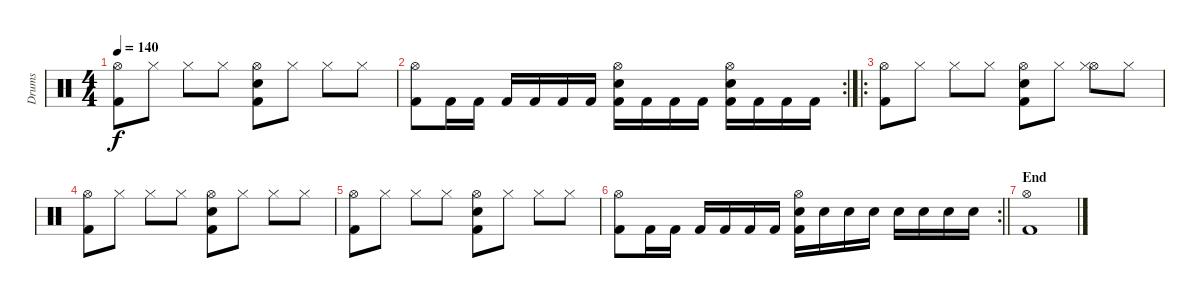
\track ("Drums" "Drums") {instrument percussion}
\staff {score}
\articulation defaults
\ts (4 4)
\tempo 140
\clef neutral
\ks c
("Hi-Hat (open)" "Kick (hit) 2").8{dy f} "Hi-Hat (closed)".8 "Hi-Hat (closed)".8 "Hi-Hat (closed)".8 ("Hi-Hat (open)" "Snare (hit) 2" "Kick (hit) 2").8 "Hi-Hat (closed)".8 "Hi-Hat (closed)".8 "Hi-Hat (closed)".8 |
\rc 2
("Hi-Hat (open)" "Kick (hit) 2").8 "Kick (hit) 2".16 "Kick (hit) 2".16 "Kick (hit) 2".16 "Kick (hit) 2".16 "Kick (hit) 2".16 "Kick (hit) 2".16 ("Hi-Hat (open)" "Snare (hit) 2" "Kick (hit) 2").16 "Kick (hit) 2".16 "Kick (hit) 2".16 "Kick (hit) 2".16 ("Hi-Hat (open)" "Snare (hit) 2" "Kick (hit) 2").16 "Kick (hit) 2".16 "Kick (hit) 2".16 "Kick (hit) 2".16 |
\ro
("Hi-Hat (open)" "Kick (hit) 2").8 "Hi-Hat (closed)".8 "Hi-Hat (closed)".8 "Hi-Hat (closed)".8 ("Hi-Hat (open)" "Snare (hit) 2" "Kick (hit) 2").8 "Hi-Hat (closed)".8 ("Hi-Hat (open)" "Hi-Hat (closed)").8 "Hi-Hat (closed)".8 |
("Hi-Hat (open)" "Kick (hit) 2").8 "Hi-Hat (closed)".8 "Hi-Hat (closed)".8 "Hi-Hat (closed)".8 ("Hi-Hat (open)" "Snare (hit) 2" "Kick (hit) 2").8 "Hi-Hat (closed)".8 "Hi-Hat (closed)".8 "Hi-Hat (closed)".8 |
("Hi-Hat (open)" "Kick (hit) 2").8 "Hi-Hat (closed)".8 "Hi-Hat (closed)".8 "Hi-Hat (closed)".8 ("Hi-Hat (open)" "Snare (hit) 2" "Kick (hit) 2").8 "Hi-Hat (closed)".8 "Hi-Hat (closed)".8 "Hi-Hat (closed)".8 |
\rc 2
\barLineRight lightlight
("Hi-Hat (open)" "Kick (hit) 2").8 "Kick (hit) 2".16 "Kick (hit) 2".16 "Kick (hit) 2".16 "Kick (hit) 2".16 "Kick (hit) 2".16 "Kick (hit) 2".16 ("Hi-Hat (open)" "Snare (hit) 2" "Kick (hit) 2").16 "Snare (hit) 2".16 "Snare (hit) 2".16 "Snare (hit) 2".16 "Snare (hit) 2".16 "Snare (hit) 2".16 "Snare (hit) 2".16 "Snare (hit) 2".16 |
\section ("" "End")
("Hi-Hat (open)" "Kick (hit) 2").1
